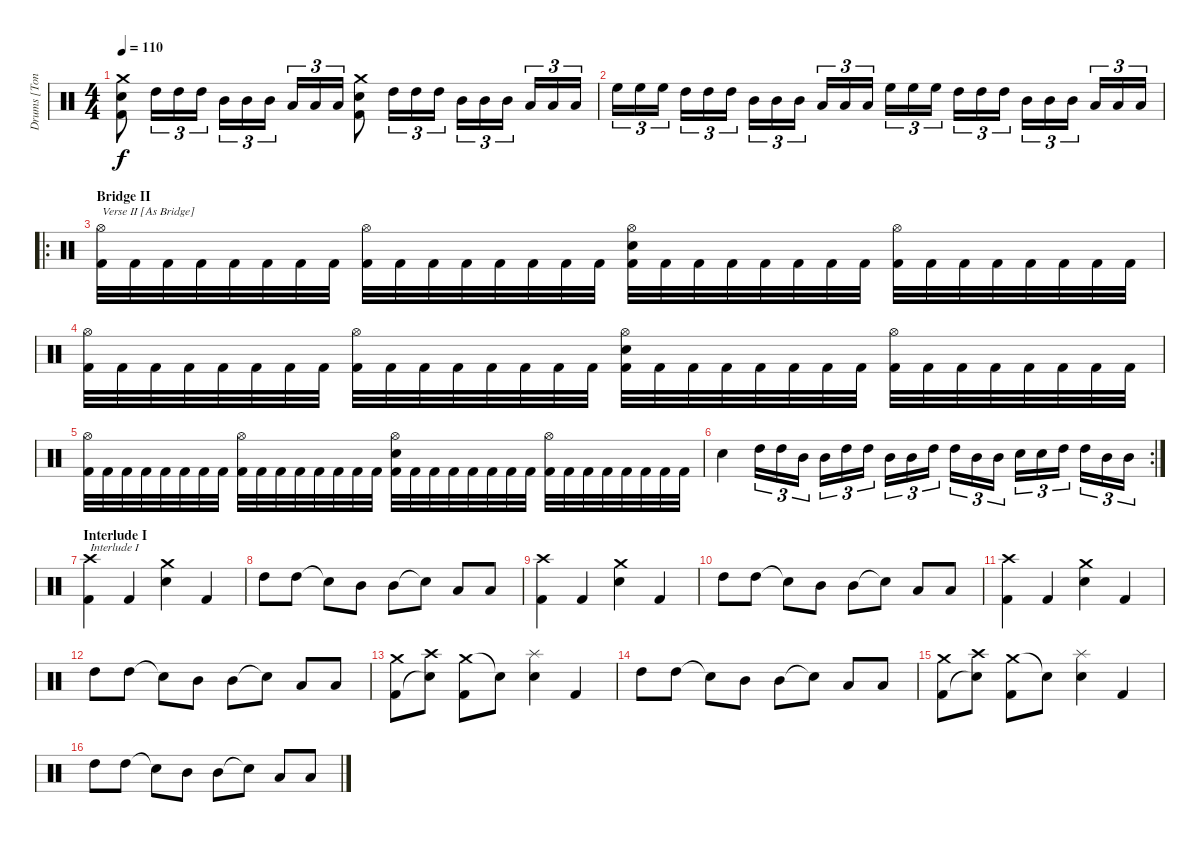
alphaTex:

\track ("Drums [Tony Laureano]" "Drums [Ton") {instrument percussion}
\staff {score}
\articulation defaults
\ts (4 4)
\tempo 110
\clef neutral
\ks c
("Crash medium (hit)" "Electric Snare (hit)" "Kick (hit) 2").8{dy f} "High Tom (hit)".16{tu (3 2)} "High Tom (hit)".16{tu (3 2)} "High Tom (hit)".16{tu (3 2)} "Mid Tom (hit)".16{tu (3 2)} "Mid Tom (hit)".16{tu (3 2)} "Mid Tom (hit)".16{tu (3 2)} "Low Tom (hit)".16{tu (3 2)} "Low Tom (hit)".16{tu (3 2)} "Low Tom (hit)".16{tu (3 2)} ("Crash medium (hit)" "Electric Snare (hit)" "Kick (hit) 2").8 "High Tom (hit)".16{tu (3 2)} "High Tom (hit)".16{tu (3 2)} "High Tom (hit)".16{tu (3 2)} "Mid Tom (hit)".16{tu (3 2)} "Mid Tom (hit)".16{tu (3 2)} "Mid Tom (hit)".16{tu (3 2)} "Low Tom (hit)".16{tu (3 2)} "Low Tom (hit)".16{tu (3 2)} "Low Tom (hit)".16{tu (3 2)} |
"High Floor Tom (hit)".16{tu (3 2)} "High Floor Tom (hit)".16{tu (3 2)} "High Floor Tom (hit)".16{tu (3 2)} "High Tom (hit)".16{tu (3 2)} "High Tom (hit)".16{tu (3 2)} "High Tom (hit)".16{tu (3 2)} "Mid Tom (hit)".16{tu (3 2)} "Mid Tom (hit)".16{tu (3 2)} "Mid Tom (hit)".16{tu (3 2)} "Low Tom (hit)".16{tu (3 2)} "Low Tom (hit)".16{tu (3 2)} "Low Tom (hit)".16{tu (3 2)} "High Floor Tom (hit)".16{tu (3 2)} "High Floor Tom (hit)".16{tu (3 2)} "High Floor Tom (hit)".16{tu (3 2)} "High Tom (hit)".16{tu (3 2)} "High Tom (hit)".16{tu (3 2)} "High Tom (hit)".16{tu (3 2)} "Mid Tom (hit)".16{tu (3 2)} "Mid Tom (hit)".16{tu (3 2)} "Mid Tom (hit)".16{tu (3 2)} "Low Tom (hit)".16{tu (3 2)} "Low Tom (hit)".16{tu (3 2)} "Low Tom (hit)".16{tu (3 2)} |
\ro
\section ("" "Bridge II")
("Hi-Hat (open)" "Kick (hit) 2").32{txt "Verse II [As Bridge]"} "Kick (hit) 2".32 "Kick (hit) 2".32 "Kick (hit) 2".32 "Kick (hit) 2".32 "Kick (hit) 2".32 "Kick (hit) 2".32 "Kick (hit) 2".32 ("Hi-Hat (open)" "Kick (hit) 2").32 "Kick (hit) 2".32 "Kick (hit) 2".32 "Kick (hit) 2".32 "Kick (hit) 2".32 "Kick (hit) 2".32 "Kick (hit) 2".32 "Kick (hit) 2".32 ("Hi-Hat (open)" "Electric Snare (hit)" "Kick (hit) 2").32 "Kick (hit) 2".32 "Kick (hit) 2".32 "Kick (hit) 2".32 "Kick (hit) 2".32 "Kick (hit) 2".32 "Kick (hit) 2".32 "Kick (hit) 2".32 ("Hi-Hat (open)" "Kick (hit) 2").32 "Kick (hit) 2".32 "Kick (hit) 2".32 "Kick (hit) 2".32 "Kick (hit) 2".32 "Kick (hit) 2".32 "Kick (hit) 2".32 "Kick (hit) 2".32 |
("Hi-Hat (open)" "Kick (hit) 2").32 "Kick (hit) 2".32 "Kick (hit) 2".32 "Kick (hit) 2".32 "Kick (hit) 2".32 "Kick (hit) 2".32 "Kick (hit) 2".32 "Kick (hit) 2".32 ("Hi-Hat (open)" "Kick (hit) 2").32 "Kick (hit) 2".32 "Kick (hit) 2".32 "Kick (hit) 2".32 "Kick (hit) 2".32 "Kick (hit) 2".32 "Kick (hit) 2".32 "Kick (hit) 2".32 ("Hi-Hat (open)" "Electric Snare (hit)" "Kick (hit) 2").32 "Kick (hit) 2".32 "Kick (hit) 2".32 "Kick (hit) 2".32 "Kick (hit) 2".32 "Kick (hit) 2".32 "Kick (hit) 2".32 "Kick (hit) 2".32 ("Hi-Hat (open)" "Kick (hit) 2").32 "Kick (hit) 2".32 "Kick (hit) 2".32 "Kick (hit) 2".32 "Kick (hit) 2".32 "Kick (hit) 2".32 "Kick (hit) 2".32 "Kick (hit) 2".32 |
("Hi-Hat (open)" "Kick (hit) 2").32 "Kick (hit) 2".32 "Kick (hit) 2".32 "Kick (hit) 2".32 "Kick (hit) 2".32 "Kick (hit) 2".32 "Kick (hit) 2".32 "Kick (hit) 2".32 ("Hi-Hat (open)" "Kick (hit) 2").32 "Kick (hit) 2".32 "Kick (hit) 2".32 "Kick (hit) 2".32 "Kick (hit) 2".32 "Kick (hit) 2".32 "Kick (hit) 2".32 "Kick (hit) 2".32 ("Hi-Hat (open)" "Electric Snare (hit)" "Kick (hit) 2").32 "Kick (hit) 2".32 "Kick (hit) 2".32 "Kick (hit) 2".32 "Kick (hit) 2".32 "Kick (hit) 2".32 "Kick (hit) 2".32 "Kick (hit) 2".32 ("Hi-Hat (open)" "Kick (hit) 2").32 "Kick (hit) 2".32 "Kick (hit) 2".32 "Kick (hit) 2".32 "Kick (hit) 2".32 "Kick (hit) 2".32 "Kick (hit) 2".32 "Kick (hit) 2".32 |
\rc 2 "Electric Snare (hit)".4 "High Tom (hit)".16{tu (3 2)} "High Tom (hit)".16{tu (3 2)} "Mid Tom (hit)".16{tu (3 2)} "Mid Tom (hit)".16{tu (3 2)} "High Tom (hit)".16{tu (3 2)} "High Tom (hit)".16{tu (3 2)} "Mid Tom (hit)".16{tu (3 2)} "Mid Tom (hit)".16{tu (3 2)} "High Tom (hit)".16{tu (3 2)} "High Tom (hit)".16{tu (3 2)} "Mid Tom (hit)".16{tu (3 2)} "Mid Tom (hit)".16{tu (3 2)} "Electric Snare (hit)".16{tu (3 2)} "Electric Snare (hit)".16{tu (3 2)} "High Tom (hit)".16{tu (3 2)} "High Tom (hit)".16{tu (3 2)} "Mid Tom (hit)".16{tu (3 2)} "Mid Tom (hit)".16{tu (3 2)}
|
\section ("" "Interlude I")
("Crash high (hit)" "Kick (hit) 2").4{txt "Interlude I"} "Kick (hit) 2".4 ("Crash medium (hit)" "Electric Snare (hit)").4 "Kick (hit) 2".4 |
"High Tom (hit)".8 "High Tom (hit)".8 "Snare (hit)"{t}.8 "Mid Tom (hit)".8 "Mid Tom (hit)".8 "Snare (hit)"{t}.8 "Low Tom (hit)".8 "Low Tom (hit)".8 |
("Crash high (hit)" "Kick (hit) 2").4 "Kick (hit) 2".4 ("Crash medium (hit)" "Electric Snare (hit)").4 "Kick (hit) 2".4 |
"High Tom (hit)".8 "High Tom (hit)".8 "Snare (hit)"{t}.8 "Mid Tom (hit)".8 "Mid Tom (hit)".8 "Snare (hit)"{t}.8 "Low Tom (hit)".8 "Low Tom (hit)".8 |
("Crash high (hit)" "Kick (hit) 2").4 "Kick (hit) 2".4 ("Crash medium (hit)" "Electric Snare (hit)").4 "Kick (hit) 2".4 |
"High Tom (hit)".8 "High Tom (hit)".8 "Snare (hit)"{t}.8 "Mid Tom (hit)".8 "Mid Tom (hit)".8 "Snare (hit)"{t}.8 "Low Tom (hit)".8 "Low Tom (hit)".8 |
("Crash medium (hit)" "Kick (hit) 2").8 ("Crash high (hit)" "Snare (hit)"{t}).8 ("Crash medium (hit)" "Kick (hit) 2").8 "Snare (hit)"{t}.8 ("Splash (hit)" "Electric Snare (hit)").4 "Kick (hit) 2".4 |
"High Tom (hit)".8 "High Tom (hit)".8 "Snare (hit)"{t}.8 "Mid Tom (hit)".8 "Mid Tom (hit)".8 "Snare (hit)"{t}.8 "Low Tom (hit)".8 "Low Tom (hit)".8 |
("Crash medium (hit)" "Kick (hit) 2").8 ("Crash high (hit)" "Snare (hit)"{t}).8 ("Crash medium (hit)" "Kick (hit) 2").8 "Snare (hit)"{t}.8 ("Splash (hit)" "Electric Snare (hit)").4 "Kick (hit) 2".4 |
"High Tom (hit)".8 "High Tom (hit)".8 "Snare (hit)"{t}.8 "Mid Tom (hit)".8 "Mid Tom (hit)".8 "Snare (hit)"{t}.8 "Low Tom (hit)".8 "Low Tom (hit)".8
